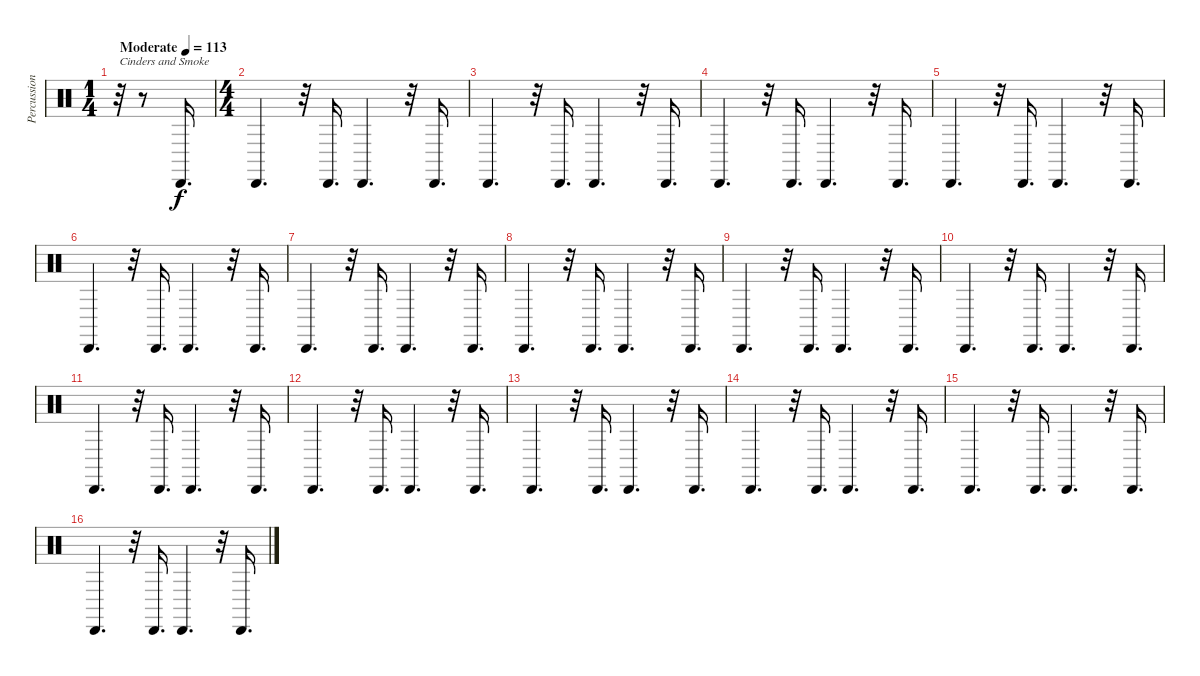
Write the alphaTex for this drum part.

\track ("Percussion" "Percussion") {instrument percussion}
\staff {score}
\articulation defaults
\ts (1 4)
\tempo (113 "Moderate")
\clef neutral
\ks c
r.32{txt "Cinders and Smoke" dy f} r.8 "Cabasa (hit)".16{d} |
\ts (4 4)
"Cabasa (hit)".4{d} r.32 "Cabasa (hit)".16{d} "Cabasa (hit)".4{d} r.32 "Cabasa (hit)".16{d} |
"Cabasa (hit)".4{d} r.32 "Cabasa (hit)".16{d} "Cabasa (hit)".4{d} r.32 "Cabasa (hit)".16{d} |
"Cabasa (hit)".4{d} r.32 "Cabasa (hit)".16{d} "Cabasa (hit)".4{d} r.32 "Cabasa (hit)".16{d} |
"Cabasa (hit)".4{d} r.32 "Cabasa (hit)".16{d} "Cabasa (hit)".4{d} r.32 "Cabasa (hit)".16{d} |
"Cabasa (hit)".4{d} r.32 "Cabasa (hit)".16{d} "Cabasa (hit)".4{d} r.32 "Cabasa (hit)".16{d} |
"Cabasa (hit)".4{d} r.32 "Cabasa (hit)".16{d} "Cabasa (hit)".4{d} r.32 "Cabasa (hit)".16{d} |
"Cabasa (hit)".4{d} r.32 "Cabasa (hit)".16{d} "Cabasa (hit)".4{d} r.32 "Cabasa (hit)".16{d} |
"Cabasa (hit)".4{d} r.32 "Cabasa (hit)".16{d} "Cabasa (hit)".4{d} r.32 "Cabasa (hit)".16{d} |
"Cabasa (hit)".4{d} r.32 "Cabasa (hit)".16{d} "Cabasa (hit)".4{d} r.32 "Cabasa (hit)".16{d} |
"Cabasa (hit)".4{d} r.32 "Cabasa (hit)".16{d} "Cabasa (hit)".4{d} r.32 "Cabasa (hit)".16{d} |
"Cabasa (hit)".4{d} r.32 "Cabasa (hit)".16{d} "Cabasa (hit)".4{d} r.32 "Cabasa (hit)".16{d} |
"Cabasa (hit)".4{d} r.32 "Cabasa (hit)".16{d} "Cabasa (hit)".4{d} r.32 "Cabasa (hit)".16{d} |
"Cabasa (hit)".4{d} r.32 "Cabasa (hit)".16{d} "Cabasa (hit)".4{d} r.32 "Cabasa (hit)".16{d} |
"Cabasa (hit)".4{d} r.32 "Cabasa (hit)".16{d} "Cabasa (hit)".4{d} r.32 "Cabasa (hit)".16{d} |
"Cabasa (hit)".4{d} r.32 "Cabasa (hit)".16{d} "Cabasa (hit)".4{d} r.32 "Cabasa (hit)".16{d}
